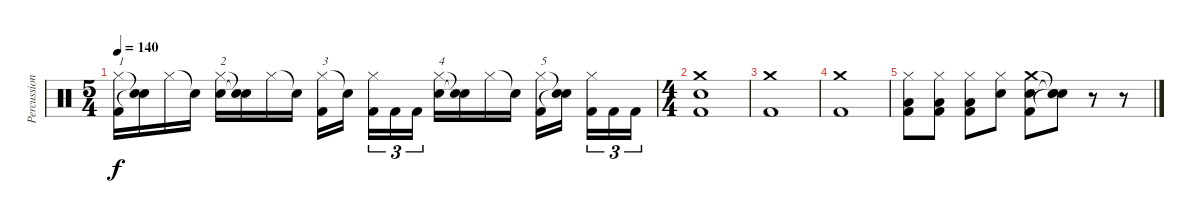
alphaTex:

\track ("Percussion" "Percussion") {instrument percussion}
\staff {score}
\articulation defaults
\ts (5 4)
\tempo 140
\clef neutral
\ks c
("Hi-Hat (closed)" "Kick (hit) 2").16{txt "1" dy f} ("Snare (hit)"{t} "Snare (hit)"{t}).16 "Hi-Hat (closed)".16 "Snare (hit)"{t}.16 ("Hi-Hat (closed)" "Snare (hit) 2").16{txt "2"} ("Snare (hit)"{t} "Snare (hit)"{t}).16 "Hi-Hat (closed)".16 "Snare (hit)"{t}.16 ("Hi-Hat (closed)" "Kick (hit) 2").16{txt "3"} "Snare (hit)"{t}.16{beam splitsecondary} ("Hi-Hat (closed)" "Kick (hit) 2").16{tu (3 2)} "Kick (hit) 2".16{tu (3 2)} "Kick (hit) 2".16{tu (3 2)} ("Hi-Hat (closed)" "Snare (hit) 2").16{txt "4"} ("Snare (hit)"{t} "Snare (hit)"{t}).16 "Hi-Hat (closed)".16 "Snare (hit)"{t}.16 ("Hi-Hat (closed)" "Kick (hit) 2").16{txt "5"} ("Snare (hit)"{t} "Snare (hit)"{t}).16{beam splitsecondary} ("Hi-Hat (closed)" "Kick (hit) 2").16{tu (3 2)} "Kick (hit) 2".16{tu (3 2)} "Kick (hit) 2".16{tu (3 2)} |
\ts (4 4)
("Crash medium (hit)" "Snare (hit) 2" "Kick (hit) 2").1 |
("Crash medium (hit)" "Kick (hit) 2").1 |
("Crash medium (hit)" "Kick (hit) 2").1 |
("Hi-Hat (closed)" "Low Floor Tom (hit)" "Kick (hit) 2").8 ("Hi-Hat (closed)" "Low Floor Tom (hit)" "Kick (hit) 2").8 ("Hi-Hat (closed)" "Low Floor Tom (hit)" "Kick (hit) 2").8 ("Hi-Hat (closed)" "Snare (hit) 2").8 ("Crash medium (hit)" "Snare (hit) 2" "Kick (hit) 2").8 ("Snare (hit)"{t} "Snare (hit)"{t} "Snare (hit)"{t}).8 r.8 r.8
